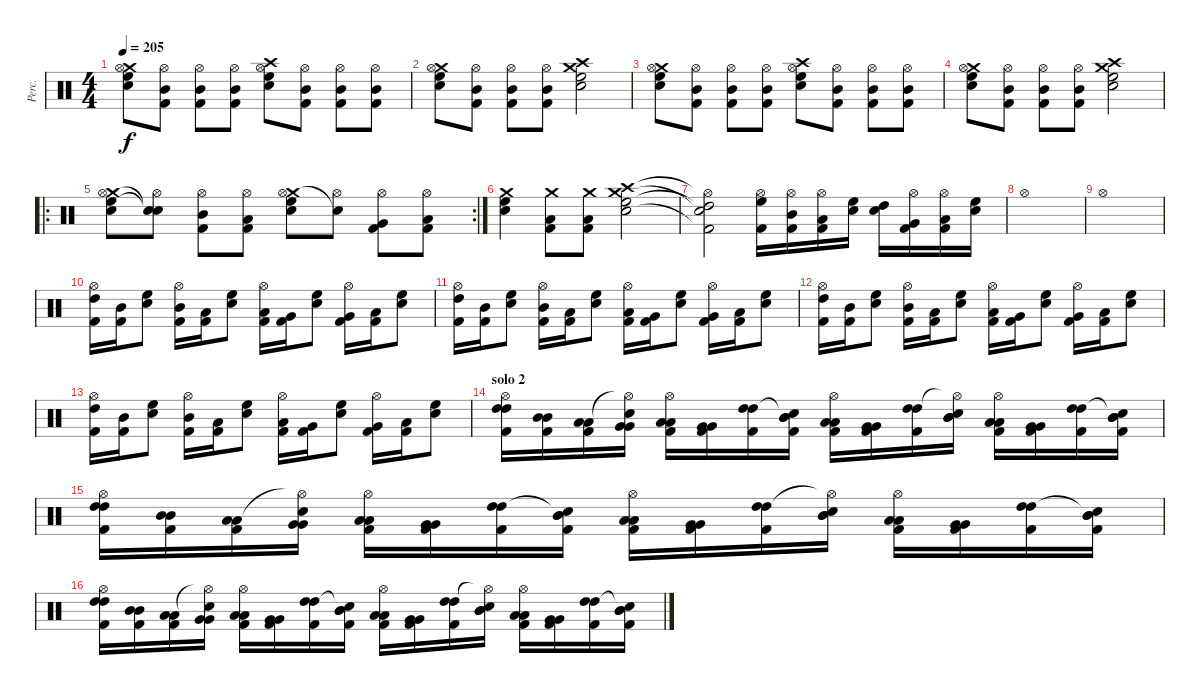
\track ("Perc." "Perc.") {instrument percussion}
\staff {score}
\articulation defaults
\ts (4 4)
\tempo 205
\clef neutral
\ks c
("Crash medium (hit)" "Hi-Hat (open)" "High Floor Tom (hit)" "Snare (hit) 2").8{dy f} ("Hi-Hat (open)" "Mid Tom (hit)" "Kick (hit) 2").8 ("Hi-Hat (open)" "Mid Tom (hit)" "Kick (hit) 2").8 ("Hi-Hat (open)" "Mid Tom (hit)" "Kick (hit) 2").8 ("Crash high (hit)" "Hi-Hat (open)" "High Floor Tom (hit)" "Snare (hit) 2").8 ("Hi-Hat (open)" "Mid Tom (hit)" "Kick (hit) 2").8 ("Hi-Hat (open)" "Mid Tom (hit)" "Kick (hit) 2").8 ("Hi-Hat (open)" "Mid Tom (hit)" "Kick (hit) 2").8 |
("Crash medium (hit)" "Hi-Hat (open)" "High Floor Tom (hit)" "Snare (hit) 2").8 ("Hi-Hat (open)" "Mid Tom (hit)" "Kick (hit) 2").8 ("Hi-Hat (open)" "Mid Tom (hit)" "Kick (hit) 2").8 ("Hi-Hat (open)" "Mid Tom (hit)" "Kick (hit) 2").8 ("Crash high (hit)" "Crash medium (hit)" "High Floor Tom (hit)" "Snare (hit) 2").2 |
("Crash medium (hit)" "Hi-Hat (open)" "High Floor Tom (hit)" "Snare (hit) 2").8 ("Hi-Hat (open)" "Mid Tom (hit)" "Kick (hit) 2").8 ("Hi-Hat (open)" "Mid Tom (hit)" "Kick (hit) 2").8 ("Hi-Hat (open)" "Mid Tom (hit)" "Kick (hit) 2").8 ("Crash high (hit)" "Hi-Hat (open)" "High Floor Tom (hit)" "Snare (hit) 2").8 ("Hi-Hat (open)" "Mid Tom (hit)" "Kick (hit) 2").8 ("Hi-Hat (open)" "Mid Tom (hit)" "Kick (hit) 2").8 ("Hi-Hat (open)" "Mid Tom (hit)" "Kick (hit) 2").8 |
("Crash medium (hit)" "Hi-Hat (open)" "High Floor Tom (hit)" "Snare (hit) 2").8 ("Hi-Hat (open)" "Mid Tom (hit)" "Kick (hit) 2").8 ("Hi-Hat (open)" "Mid Tom (hit)" "Kick (hit) 2").8 ("Hi-Hat (open)" "Mid Tom (hit)" "Kick (hit) 2").8 ("Crash high (hit)" "Crash medium (hit)" "High Floor Tom (hit)" "Snare (hit) 2").2 |
\ro
\rc 2
("Crash medium (hit)" "Hi-Hat (open)" "High Floor Tom (hit)" "Snare (hit) 2").8 ("Hi-Hat (open)" "Snare (hit)"{t} "Snare (hit)"{t}).8 ("Hi-Hat (open)" "Mid Tom (hit)" "Kick (hit) 2").8 ("Hi-Hat (open)" "Low Tom (hit)" "Kick (hit) 2").8 ("Crash medium (hit)" "Hi-Hat (open)" "High Floor Tom (hit)" "Snare (hit) 2").8 ("Hi-Hat (open)" "Snare (hit)"{t}).8 ("Hi-Hat (open)" "Very Low Tom (hit)" "Kick (hit) 2").8 ("Hi-Hat (open)" "Low Floor Tom (hit)" "Kick (hit) 2").8 |
("Crash medium (hit)" "High Floor Tom (hit)" "Snare (hit) 2").4 ("Crash medium (hit)" "Low Tom (hit)" "Kick (hit) 2").8 ("Crash medium (hit)" "Low Tom (hit)" "Kick (hit) 2").8 ("Crash high (hit)" "Crash medium (hit)" "High Floor Tom (hit)" "Snare (hit) 2").2 |
("Hi-Hat (open)"{t} "Snare (hit)"{t} "High Tom (hit)"{t} "Kick (hit) 2"{t}).2 ("Hi-Hat (open)" "High Floor Tom (hit)" "Kick (hit) 2").16 ("Hi-Hat (open)" "Mid Tom (hit)" "Kick (hit) 2").16 ("Hi-Hat (open)" "Low Tom (hit)" "Kick (hit) 2").16 ("High Floor Tom (hit)" "Snare (hit) 2").16 ("High Tom (hit)" "Snare (hit) 2").16 ("Hi-Hat (open)" "Very Low Tom (hit)" "Kick (hit) 2").16 ("Hi-Hat (open)" "Low Floor Tom (hit)" "Kick (hit) 2").16 ("High Floor Tom (hit)" "Snare (hit) 2").16 |
"Hi-Hat (open)".1 |
"Hi-Hat (open)".1 |
("Hi-Hat (open)" "High Tom (hit)" "Kick (hit) 2").16 ("Mid Tom (hit)" "Kick (hit) 2").16 ("High Floor Tom (hit)" "Snare (hit) 2").8 ("Hi-Hat (open)" "Mid Tom (hit)" "Kick (hit) 2").16 ("Low Tom (hit)" "Kick (hit) 2").16 ("High Floor Tom (hit)" "Snare (hit) 2").8 ("Hi-Hat (open)" "Low Tom (hit)" "Kick (hit) 2").16 ("Very Low Tom (hit)" "Kick (hit) 2").16 ("High Floor Tom (hit)" "Snare (hit) 2").8 ("Hi-Hat (open)" "Very Low Tom (hit)" "Kick (hit) 2").16 ("Low Floor Tom (hit)" "Kick (hit) 2").16 ("High Floor Tom (hit)" "Snare (hit) 2").8 |
("Hi-Hat (open)" "High Tom (hit)" "Kick (hit) 2").16 ("Mid Tom (hit)" "Kick (hit) 2").16 ("High Floor Tom (hit)" "Snare (hit) 2").8 ("Hi-Hat (open)" "Mid Tom (hit)" "Kick (hit) 2").16 ("Low Tom (hit)" "Kick (hit) 2").16 ("High Floor Tom (hit)" "Snare (hit) 2").8 ("Hi-Hat (open)" "Low Tom (hit)" "Kick (hit) 2").16 ("Very Low Tom (hit)" "Kick (hit) 2").16 ("High Floor Tom (hit)" "Snare (hit) 2").8 ("Hi-Hat (open)" "Very Low Tom (hit)" "Kick (hit) 2").16 ("Low Floor Tom (hit)" "Kick (hit) 2").16 ("High Floor Tom (hit)" "Snare (hit) 2").8 |
("Hi-Hat (open)" "High Tom (hit)" "Kick (hit) 2").16 ("Mid Tom (hit)" "Kick (hit) 2").16 ("High Floor Tom (hit)" "Snare (hit) 2").8 ("Hi-Hat (open)" "Mid Tom (hit)" "Kick (hit) 2").16 ("Low Tom (hit)" "Kick (hit) 2").16 ("High Floor Tom (hit)" "Snare (hit) 2").8 ("Hi-Hat (open)" "Low Tom (hit)" "Kick (hit) 2").16 ("Very Low Tom (hit)" "Kick (hit) 2").16 ("High Floor Tom (hit)" "Snare (hit) 2").8 ("Hi-Hat (open)" "Very Low Tom (hit)" "Kick (hit) 2").16 ("Low Floor Tom (hit)" "Kick (hit) 2").16 ("High Floor Tom (hit)" "Snare (hit) 2").8 |
("Hi-Hat (open)" "High Tom (hit)" "Kick (hit) 2").16 ("Mid Tom (hit)" "Kick (hit) 2").16 ("High Floor Tom (hit)" "Snare (hit) 2").8 ("Hi-Hat (open)" "Mid Tom (hit)" "Kick (hit) 2").16 ("Low Tom (hit)" "Kick (hit) 2").16 ("High Floor Tom (hit)" "Snare (hit) 2").8 ("Hi-Hat (open)" "Low Tom (hit)" "Kick (hit) 2").16 ("Very Low Tom (hit)" "Kick (hit) 2").16 ("High Floor Tom (hit)" "Snare (hit) 2").8 ("Hi-Hat (open)" "Very Low Tom (hit)" "Kick (hit) 2").16 ("Low Floor Tom (hit)" "Kick (hit) 2").16 ("High Floor Tom (hit)" "Snare (hit) 2").8 |
\section ("" "solo 2")
("Hi-Hat (open)" "High Tom (hit)" "High Tom (hit)" "Kick (hit) 2").16 ("Mid Tom (hit)" "Mid Tom (hit)" "Kick (hit) 2").16 ("Low Tom (hit)" "Low Tom (hit)" "Kick (hit) 2").16 ("Hi-Hat (open)"{t} "Very Low Tom (hit)" "Very Low Tom (hit)" "Snare (hit) 2").16 ("Hi-Hat (open)" "Low Tom (hit)" "Low Tom (hit)" "Kick (hit) 2").16 ("Very Low Tom (hit)" "Very Low Tom (hit)" "Kick (hit) 2").16 ("High Tom (hit)" "High Tom (hit)" "Kick (hit) 2").16 ("Snare (hit)"{t} "Mid Tom (hit)" "Mid Tom (hit)" "Kick (hit) 2").16 ("Hi-Hat (open)" "Low Tom (hit)" "Low Tom (hit)" "Kick (hit) 2").16 ("Very Low Tom (hit)" "Very Low Tom (hit)" "Kick (hit) 2").16 ("High Tom (hit)" "High Tom (hit)" "Kick (hit) 2").16 ("Hi-Hat (open)"{t} "Mid Tom (hit)" "Mid Tom (hit)" "Snare (hit) 2").16 ("Hi-Hat (open)" "Low Tom (hit)" "Low Tom (hit)" "Kick (hit) 2").16 ("Very Low Tom (hit)" "Very Low Tom (hit)" "Kick (hit) 2").16 ("High Tom (hit)" "High Tom (hit)" "Kick (hit) 2").16 ("Snare (hit)"{t} "Mid Tom (hit)" "Mid Tom (hit)" "Kick (hit) 2").16 |
("Hi-Hat (open)" "High Tom (hit)" "High Tom (hit)" "Kick (hit) 2").16 ("Mid Tom (hit)" "Mid Tom (hit)" "Kick (hit) 2").16 ("Low Tom (hit)" "Low Tom (hit)" "Kick (hit) 2").16 ("Hi-Hat (open)"{t} "Very Low Tom (hit)" "Very Low Tom (hit)" "Snare (hit) 2").16 ("Hi-Hat (open)" "Low Tom (hit)" "Low Tom (hit)" "Kick (hit) 2").16 ("Very Low Tom (hit)" "Very Low Tom (hit)" "Kick (hit) 2").16 ("High Tom (hit)" "High Tom (hit)" "Kick (hit) 2").16 ("Snare (hit)"{t} "Mid Tom (hit)" "Mid Tom (hit)" "Kick (hit) 2").16 ("Hi-Hat (open)" "Low Tom (hit)" "Low Tom (hit)" "Kick (hit) 2").16 ("Very Low Tom (hit)" "Very Low Tom (hit)" "Kick (hit) 2").16 ("High Tom (hit)" "High Tom (hit)" "Kick (hit) 2").16 ("Hi-Hat (open)"{t} "Mid Tom (hit)" "Mid Tom (hit)" "Snare (hit) 2").16 ("Hi-Hat (open)" "Low Tom (hit)" "Low Tom (hit)" "Kick (hit) 2").16 ("Very Low Tom (hit)" "Very Low Tom (hit)" "Kick (hit) 2").16 ("High Tom (hit)" "High Tom (hit)" "Kick (hit) 2").16 ("Snare (hit)"{t} "Mid Tom (hit)" "Mid Tom (hit)" "Kick (hit) 2").16 |
("Hi-Hat (open)" "High Tom (hit)" "High Tom (hit)" "Kick (hit) 2").16 ("Mid Tom (hit)" "Mid Tom (hit)" "Kick (hit) 2").16 ("Low Tom (hit)" "Low Tom (hit)" "Kick (hit) 2").16 ("Hi-Hat (open)"{t} "Very Low Tom (hit)" "Very Low Tom (hit)" "Snare (hit) 2").16 ("Hi-Hat (open)" "Low Tom (hit)" "Low Tom (hit)" "Kick (hit) 2").16 ("Very Low Tom (hit)" "Very Low Tom (hit)" "Kick (hit) 2").16 ("High Tom (hit)" "High Tom (hit)" "Kick (hit) 2").16 ("Snare (hit)"{t} "Mid Tom (hit)" "Mid Tom (hit)" "Kick (hit) 2").16 ("Hi-Hat (open)" "Low Tom (hit)" "Low Tom (hit)" "Kick (hit) 2").16 ("Very Low Tom (hit)" "Very Low Tom (hit)" "Kick (hit) 2").16 ("High Tom (hit)" "High Tom (hit)" "Kick (hit) 2").16 ("Hi-Hat (open)"{t} "Mid Tom (hit)" "Mid Tom (hit)" "Snare (hit) 2").16 ("Hi-Hat (open)" "Low Tom (hit)" "Low Tom (hit)" "Kick (hit) 2").16 ("Very Low Tom (hit)" "Very Low Tom (hit)" "Kick (hit) 2").16 ("High Tom (hit)" "High Tom (hit)" "Kick (hit) 2").16 ("Snare (hit)"{t} "Mid Tom (hit)" "Mid Tom (hit)" "Kick (hit) 2").16
